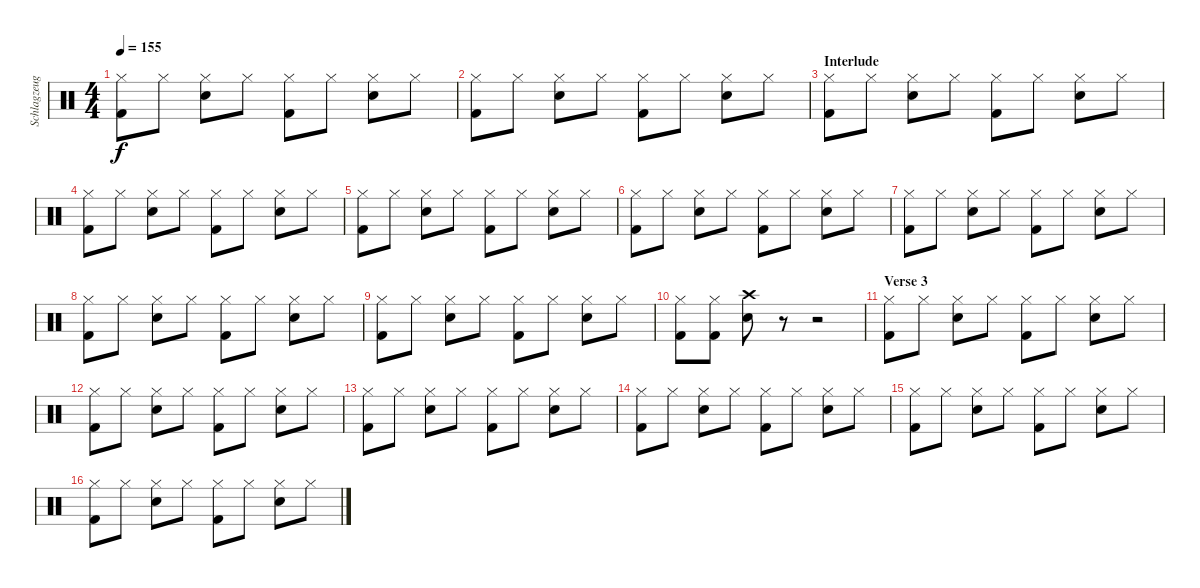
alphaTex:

\track ("Schlagzeug - Bela B." "Schlagzeug") {instrument percussion}
\staff {score}
\articulation defaults
\ts (4 4)
\tempo 155
\clef neutral
\ks c
("Hi-Hat (closed)" "Kick (hit) 2").8{dy f} "Hi-Hat (closed)".8 ("Hi-Hat (closed)" "Snare (hit) 2").8 "Hi-Hat (closed)".8 ("Hi-Hat (closed)" "Kick (hit) 2").8 "Hi-Hat (closed)".8 ("Hi-Hat (closed)" "Snare (hit) 2").8 "Hi-Hat (closed)".8 |
("Hi-Hat (closed)" "Kick (hit) 2").8 "Hi-Hat (closed)".8 ("Hi-Hat (closed)" "Snare (hit) 2").8 "Hi-Hat (closed)".8 ("Hi-Hat (closed)" "Kick (hit) 2").8 "Hi-Hat (closed)".8 ("Hi-Hat (closed)" "Snare (hit) 2").8 "Hi-Hat (closed)".8 |
\section ("" "Interlude")
("Hi-Hat (closed)" "Kick (hit) 2").8 "Hi-Hat (closed)".8 ("Hi-Hat (closed)" "Snare (hit) 2").8 "Hi-Hat (closed)".8 ("Hi-Hat (closed)" "Kick (hit) 2").8 "Hi-Hat (closed)".8 ("Hi-Hat (closed)" "Snare (hit) 2").8 "Hi-Hat (closed)".8 |
("Hi-Hat (closed)" "Kick (hit) 2").8 "Hi-Hat (closed)".8 ("Hi-Hat (closed)" "Snare (hit) 2").8 "Hi-Hat (closed)".8 ("Hi-Hat (closed)" "Kick (hit) 2").8 "Hi-Hat (closed)".8 ("Hi-Hat (closed)" "Snare (hit) 2").8 "Hi-Hat (closed)".8 |
("Hi-Hat (closed)" "Kick (hit) 2").8 "Hi-Hat (closed)".8 ("Hi-Hat (closed)" "Snare (hit) 2").8 "Hi-Hat (closed)".8 ("Hi-Hat (closed)" "Kick (hit) 2").8 "Hi-Hat (closed)".8 ("Hi-Hat (closed)" "Snare (hit) 2").8 "Hi-Hat (closed)".8 |
("Hi-Hat (closed)" "Kick (hit) 2").8 "Hi-Hat (closed)".8 ("Hi-Hat (closed)" "Snare (hit) 2").8 "Hi-Hat (closed)".8 ("Hi-Hat (closed)" "Kick (hit) 2").8 "Hi-Hat (closed)".8 ("Hi-Hat (closed)" "Snare (hit) 2").8 "Hi-Hat (closed)".8 |
("Hi-Hat (closed)" "Kick (hit) 2").8 "Hi-Hat (closed)".8 ("Hi-Hat (closed)" "Snare (hit) 2").8 "Hi-Hat (closed)".8 ("Hi-Hat (closed)" "Kick (hit) 2").8 "Hi-Hat (closed)".8 ("Hi-Hat (closed)" "Snare (hit) 2").8 "Hi-Hat (closed)".8 |
("Hi-Hat (closed)" "Kick (hit) 2").8 "Hi-Hat (closed)".8 ("Hi-Hat (closed)" "Snare (hit) 2").8 "Hi-Hat (closed)".8 ("Hi-Hat (closed)" "Kick (hit) 2").8 "Hi-Hat (closed)".8 ("Hi-Hat (closed)" "Snare (hit) 2").8 "Hi-Hat (closed)".8 |
("Hi-Hat (closed)" "Kick (hit) 2").8 "Hi-Hat (closed)".8 ("Hi-Hat (closed)" "Snare (hit) 2").8 "Hi-Hat (closed)".8 ("Hi-Hat (closed)" "Kick (hit) 2").8 "Hi-Hat (closed)".8 ("Hi-Hat (closed)" "Snare (hit) 2").8 "Hi-Hat (closed)".8 |
("Hi-Hat (closed)" "Kick (hit) 2").8 ("Hi-Hat (closed)" "Kick (hit) 2").8 ("Crash high (hit)" "Snare (hit) 2").8 r.8 r.2 |
\section ("" "Verse 3")
("Hi-Hat (closed)" "Kick (hit) 2").8 "Hi-Hat (closed)".8 ("Hi-Hat (closed)" "Snare (hit) 2").8 "Hi-Hat (closed)".8 ("Hi-Hat (closed)" "Kick (hit) 2").8 "Hi-Hat (closed)".8 ("Hi-Hat (closed)" "Snare (hit) 2").8 "Hi-Hat (closed)".8 |
("Hi-Hat (closed)" "Kick (hit) 2").8 "Hi-Hat (closed)".8 ("Hi-Hat (closed)" "Snare (hit) 2").8 "Hi-Hat (closed)".8 ("Hi-Hat (closed)" "Kick (hit) 2").8 "Hi-Hat (closed)".8 ("Hi-Hat (closed)" "Snare (hit) 2").8 "Hi-Hat (closed)".8 |
("Hi-Hat (closed)" "Kick (hit) 2").8 "Hi-Hat (closed)".8 ("Hi-Hat (closed)" "Snare (hit) 2").8 "Hi-Hat (closed)".8 ("Hi-Hat (closed)" "Kick (hit) 2").8 "Hi-Hat (closed)".8 ("Hi-Hat (closed)" "Snare (hit) 2").8 "Hi-Hat (closed)".8 |
("Hi-Hat (closed)" "Kick (hit) 2").8 "Hi-Hat (closed)".8 ("Hi-Hat (closed)" "Snare (hit) 2").8 "Hi-Hat (closed)".8 ("Hi-Hat (closed)" "Kick (hit) 2").8 "Hi-Hat (closed)".8 ("Hi-Hat (closed)" "Snare (hit) 2").8 "Hi-Hat (closed)".8 |
("Hi-Hat (closed)" "Kick (hit) 2").8 "Hi-Hat (closed)".8 ("Hi-Hat (closed)" "Snare (hit) 2").8 "Hi-Hat (closed)".8 ("Hi-Hat (closed)" "Kick (hit) 2").8 "Hi-Hat (closed)".8 ("Hi-Hat (closed)" "Snare (hit) 2").8 "Hi-Hat (closed)".8 |
("Hi-Hat (closed)" "Kick (hit) 2").8 "Hi-Hat (closed)".8 ("Hi-Hat (closed)" "Snare (hit) 2").8 "Hi-Hat (closed)".8 ("Hi-Hat (closed)" "Kick (hit) 2").8 "Hi-Hat (closed)".8 ("Hi-Hat (closed)" "Snare (hit) 2").8 "Hi-Hat (closed)".8
